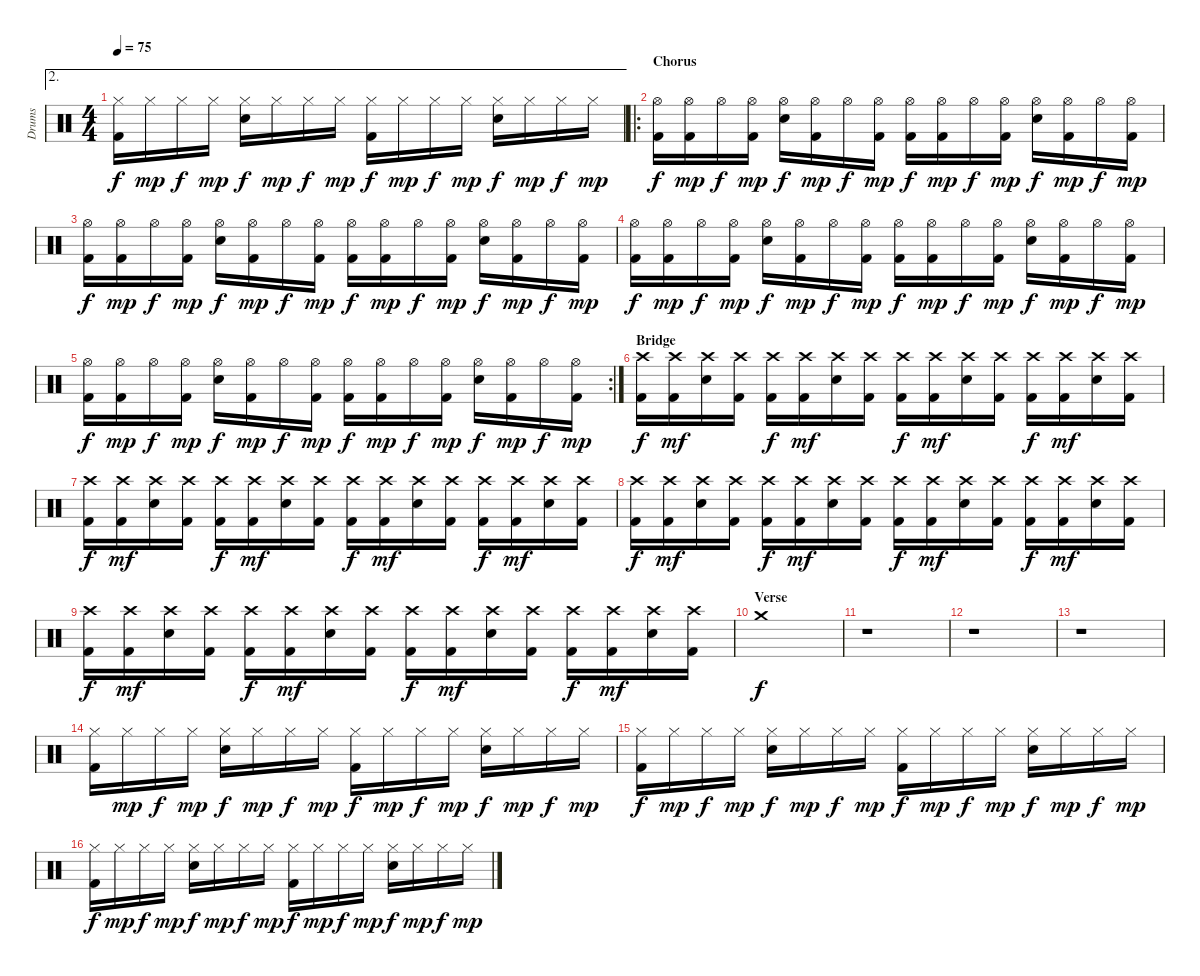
\track ("Drums" "Drums") {instrument percussion}
\staff {score}
\articulation defaults
\ae 2
\ts (4 4)
\tempo 75
\clef neutral
\ks c
("Hi-Hat (closed)" "Kick (hit) 2").16{dy f} "Hi-Hat (closed)".16{dy mp} "Hi-Hat (closed)".16{dy f} "Hi-Hat (closed)".16{dy mp} ("Hi-Hat (closed)" "Snare (hit) 2").16{dy f} "Hi-Hat (closed)".16{dy mp} "Hi-Hat (closed)".16{dy f} "Hi-Hat (closed)".16{dy mp} ("Hi-Hat (closed)" "Kick (hit) 2").16{dy f} "Hi-Hat (closed)".16{dy mp} "Hi-Hat (closed)".16{dy f} "Hi-Hat (closed)".16{dy mp} ("Hi-Hat (closed)" "Snare (hit) 2").16{dy f} "Hi-Hat (closed)".16{dy mp} "Hi-Hat (closed)".16{dy f} "Hi-Hat (closed)".16{dy mp} |
\ro
\section ("" "Chorus")
("Hi-Hat (open)" "Kick (hit) 2").16{dy f} ("Hi-Hat (open)" "Kick (hit) 2").16{dy mp} "Hi-Hat (open)".16{dy f} ("Hi-Hat (open)" "Kick (hit) 2").16{dy mp} ("Hi-Hat (open)" "Snare (hit) 2").16{dy f} ("Hi-Hat (open)" "Kick (hit) 2").16{dy mp} "Hi-Hat (open)".16{dy f} ("Hi-Hat (open)" "Kick (hit) 2").16{dy mp} ("Hi-Hat (open)" "Kick (hit) 2").16{dy f} ("Hi-Hat (open)" "Kick (hit) 2").16{dy mp} "Hi-Hat (open)".16{dy f} ("Hi-Hat (open)" "Kick (hit) 2").16{dy mp} ("Hi-Hat (open)" "Snare (hit) 2").16{dy f} ("Hi-Hat (open)" "Kick (hit) 2").16{dy mp} "Hi-Hat (open)".16{dy f} ("Hi-Hat (open)" "Kick (hit) 2").16{dy mp} |
("Hi-Hat (open)" "Kick (hit) 2").16{dy f} ("Hi-Hat (open)" "Kick (hit) 2").16{dy mp} "Hi-Hat (open)".16{dy f} ("Hi-Hat (open)" "Kick (hit) 2").16{dy mp} ("Hi-Hat (open)" "Snare (hit) 2").16{dy f} ("Hi-Hat (open)" "Kick (hit) 2").16{dy mp} "Hi-Hat (open)".16{dy f} ("Hi-Hat (open)" "Kick (hit) 2").16{dy mp} ("Hi-Hat (open)" "Kick (hit) 2").16{dy f} ("Hi-Hat (open)" "Kick (hit) 2").16{dy mp} "Hi-Hat (open)".16{dy f} ("Hi-Hat (open)" "Kick (hit) 2").16{dy mp} ("Hi-Hat (open)" "Snare (hit) 2").16{dy f} ("Hi-Hat (open)" "Kick (hit) 2").16{dy mp} "Hi-Hat (open)".16{dy f} ("Hi-Hat (open)" "Kick (hit) 2").16{dy mp} |
("Hi-Hat (open)" "Kick (hit) 2").16{dy f} ("Hi-Hat (open)" "Kick (hit) 2").16{dy mp} "Hi-Hat (open)".16{dy f} ("Hi-Hat (open)" "Kick (hit) 2").16{dy mp} ("Hi-Hat (open)" "Snare (hit) 2").16{dy f} ("Hi-Hat (open)" "Kick (hit) 2").16{dy mp} "Hi-Hat (open)".16{dy f} ("Hi-Hat (open)" "Kick (hit) 2").16{dy mp} ("Hi-Hat (open)" "Kick (hit) 2").16{dy f} ("Hi-Hat (open)" "Kick (hit) 2").16{dy mp} "Hi-Hat (open)".16{dy f} ("Hi-Hat (open)" "Kick (hit) 2").16{dy mp} ("Hi-Hat (open)" "Snare (hit) 2").16{dy f} ("Hi-Hat (open)" "Kick (hit) 2").16{dy mp} "Hi-Hat (open)".16{dy f} ("Hi-Hat (open)" "Kick (hit) 2").16{dy mp} |
\rc 2
("Hi-Hat (open)" "Kick (hit) 2").16{dy f} ("Hi-Hat (open)" "Kick (hit) 2").16{dy mp} "Hi-Hat (open)".16{dy f} ("Hi-Hat (open)" "Kick (hit) 2").16{dy mp} ("Hi-Hat (open)" "Snare (hit) 2").16{dy f} ("Hi-Hat (open)" "Kick (hit) 2").16{dy mp} "Hi-Hat (open)".16{dy f} ("Hi-Hat (open)" "Kick (hit) 2").16{dy mp} ("Hi-Hat (open)" "Kick (hit) 2").16{dy f} ("Hi-Hat (open)" "Kick (hit) 2").16{dy mp} "Hi-Hat (open)".16{dy f} ("Hi-Hat (open)" "Kick (hit) 2").16{dy mp} ("Hi-Hat (open)" "Snare (hit) 2").16{dy f} ("Hi-Hat (open)" "Kick (hit) 2").16{dy mp} "Hi-Hat (open)".16{dy f} ("Hi-Hat (open)" "Kick (hit) 2").16{dy mp} |
\section ("" "Bridge")
("Crash high (hit)" "Kick (hit) 2").16{dy f} ("Crash high (hit)" "Kick (hit) 2").16{dy mf} ("Crash high (hit)" "Snare (hit) 2").16 ("Crash high (hit)" "Kick (hit) 2").16 ("Crash high (hit)" "Kick (hit) 2").16{dy f} ("Crash high (hit)" "Kick (hit) 2").16{dy mf} ("Crash high (hit)" "Snare (hit) 2").16 ("Crash high (hit)" "Kick (hit) 2").16 ("Crash high (hit)" "Kick (hit) 2").16{dy f} ("Crash high (hit)" "Kick (hit) 2").16{dy mf} ("Crash high (hit)" "Snare (hit) 2").16 ("Crash high (hit)" "Kick (hit) 2").16 ("Crash high (hit)" "Kick (hit) 2").16{dy f} ("Crash high (hit)" "Kick (hit) 2").16{dy mf} ("Crash high (hit)" "Snare (hit) 2").16 ("Crash high (hit)" "Kick (hit) 2").16 |
("Crash high (hit)" "Kick (hit) 2").16{dy f} ("Crash high (hit)" "Kick (hit) 2").16{dy mf} ("Crash high (hit)" "Snare (hit) 2").16 ("Crash high (hit)" "Kick (hit) 2").16 ("Crash high (hit)" "Kick (hit) 2").16{dy f} ("Crash high (hit)" "Kick (hit) 2").16{dy mf} ("Crash high (hit)" "Snare (hit) 2").16 ("Crash high (hit)" "Kick (hit) 2").16 ("Crash high (hit)" "Kick (hit) 2").16{dy f} ("Crash high (hit)" "Kick (hit) 2").16{dy mf} ("Crash high (hit)" "Snare (hit) 2").16 ("Crash high (hit)" "Kick (hit) 2").16 ("Crash high (hit)" "Kick (hit) 2").16{dy f} ("Crash high (hit)" "Kick (hit) 2").16{dy mf} ("Crash high (hit)" "Snare (hit) 2").16 ("Crash high (hit)" "Kick (hit) 2").16 |
("Crash high (hit)" "Kick (hit) 2").16{dy f} ("Crash high (hit)" "Kick (hit) 2").16{dy mf} ("Crash high (hit)" "Snare (hit) 2").16 ("Crash high (hit)" "Kick (hit) 2").16 ("Crash high (hit)" "Kick (hit) 2").16{dy f} ("Crash high (hit)" "Kick (hit) 2").16{dy mf} ("Crash high (hit)" "Snare (hit) 2").16 ("Crash high (hit)" "Kick (hit) 2").16 ("Crash high (hit)" "Kick (hit) 2").16{dy f} ("Crash high (hit)" "Kick (hit) 2").16{dy mf} ("Crash high (hit)" "Snare (hit) 2").16 ("Crash high (hit)" "Kick (hit) 2").16 ("Crash high (hit)" "Kick (hit) 2").16{dy f} ("Crash high (hit)" "Kick (hit) 2").16{dy mf} ("Crash high (hit)" "Snare (hit) 2").16 ("Crash high (hit)" "Kick (hit) 2").16 |
("Crash high (hit)" "Kick (hit) 2").16{dy f} ("Crash high (hit)" "Kick (hit) 2").16{dy mf} ("Crash high (hit)" "Snare (hit) 2").16 ("Crash high (hit)" "Kick (hit) 2").16 ("Crash high (hit)" "Kick (hit) 2").16{dy f} ("Crash high (hit)" "Kick (hit) 2").16{dy mf} ("Crash high (hit)" "Snare (hit) 2").16 ("Crash high (hit)" "Kick (hit) 2").16 ("Crash high (hit)" "Kick (hit) 2").16{dy f} ("Crash high (hit)" "Kick (hit) 2").16{dy mf} ("Crash high (hit)" "Snare (hit) 2").16 ("Crash high (hit)" "Kick (hit) 2").16 ("Crash high (hit)" "Kick (hit) 2").16{dy f} ("Crash high (hit)" "Kick (hit) 2").16{dy mf} ("Crash high (hit)" "Snare (hit) 2").16 ("Crash high (hit)" "Kick (hit) 2").16 |
\section ("" "Verse")
"Crash medium (hit)".1{dy f} |
r.1 |
r.1 |
r.1 |
("Hi-Hat (closed)" "Kick (hit) 2").16 "Hi-Hat (closed)".16{dy mp} "Hi-Hat (closed)".16{dy f} "Hi-Hat (closed)".16{dy mp} ("Hi-Hat (closed)" "Snare (hit) 2").16{dy f} "Hi-Hat (closed)".16{dy mp} "Hi-Hat (closed)".16{dy f} "Hi-Hat (closed)".16{dy mp} ("Hi-Hat (closed)" "Kick (hit) 2").16{dy f} "Hi-Hat (closed)".16{dy mp} "Hi-Hat (closed)".16{dy f} "Hi-Hat (closed)".16{dy mp} ("Hi-Hat (closed)" "Snare (hit) 2").16{dy f} "Hi-Hat (closed)".16{dy mp} "Hi-Hat (closed)".16{dy f} "Hi-Hat (closed)".16{dy mp} |
("Hi-Hat (closed)" "Kick (hit) 2").16{dy f} "Hi-Hat (closed)".16{dy mp} "Hi-Hat (closed)".16{dy f} "Hi-Hat (closed)".16{dy mp} ("Hi-Hat (closed)" "Snare (hit) 2").16{dy f} "Hi-Hat (closed)".16{dy mp} "Hi-Hat (closed)".16{dy f} "Hi-Hat (closed)".16{dy mp} ("Hi-Hat (closed)" "Kick (hit) 2").16{dy f} "Hi-Hat (closed)".16{dy mp} "Hi-Hat (closed)".16{dy f} "Hi-Hat (closed)".16{dy mp} ("Hi-Hat (closed)" "Snare (hit) 2").16{dy f} "Hi-Hat (closed)".16{dy mp} "Hi-Hat (closed)".16{dy f} "Hi-Hat (closed)".16{dy mp} |
("Hi-Hat (closed)" "Kick (hit) 2").16{dy f} "Hi-Hat (closed)".16{dy mp} "Hi-Hat (closed)".16{dy f} "Hi-Hat (closed)".16{dy mp} ("Hi-Hat (closed)" "Snare (hit) 2").16{dy f} "Hi-Hat (closed)".16{dy mp} "Hi-Hat (closed)".16{dy f} "Hi-Hat (closed)".16{dy mp} ("Hi-Hat (closed)" "Kick (hit) 2").16{dy f} "Hi-Hat (closed)".16{dy mp} "Hi-Hat (closed)".16{dy f} "Hi-Hat (closed)".16{dy mp} ("Hi-Hat (closed)" "Snare (hit) 2").16{dy f} "Hi-Hat (closed)".16{dy mp} "Hi-Hat (closed)".16{dy f} "Hi-Hat (closed)".16{dy mp}
